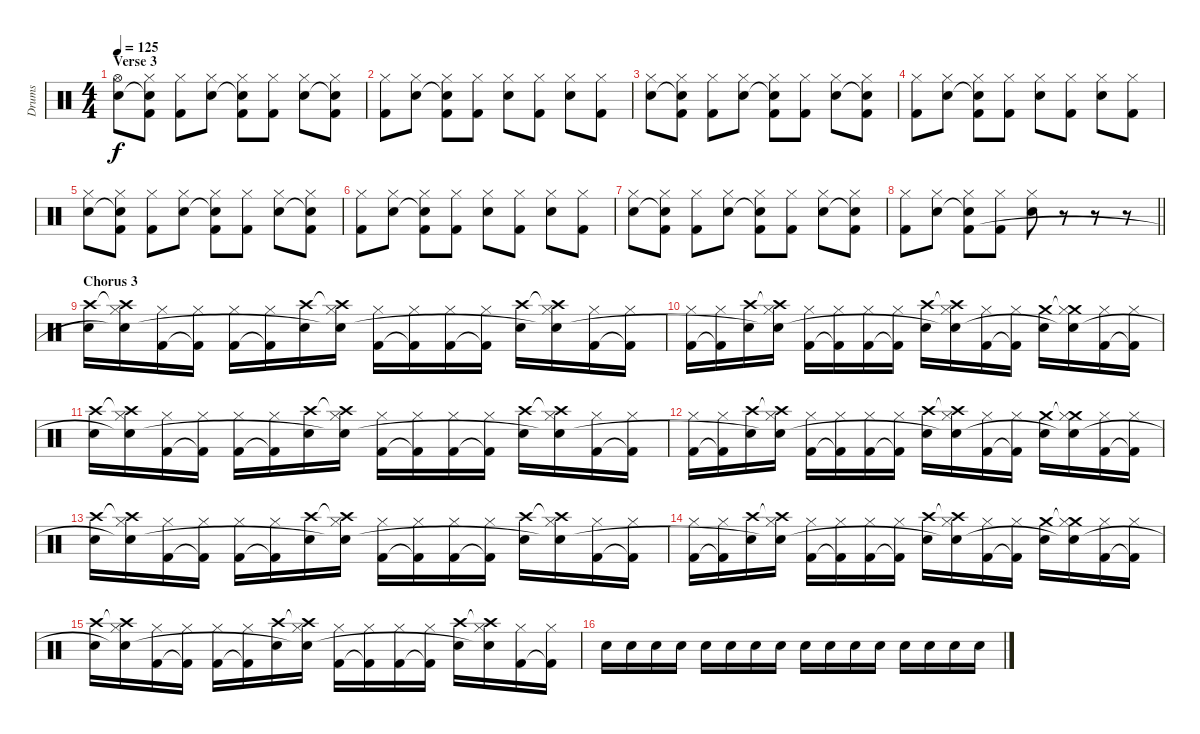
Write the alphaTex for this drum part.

\track ("Drums" "Drums") {instrument percussion}
\staff {score}
\articulation defaults
\ts (4 4)
\section ("" "Verse 3")
\tempo 125
\clef neutral
\ks c
("Hi-Hat (open)" "Snare (hit) 2").8{dy f} ("Hi-Hat (closed)" "Snare (hit) 2"{t} "Kick (hit) 2").8 ("Hi-Hat (closed)" "Kick (hit) 2").8 ("Hi-Hat (closed)" "Snare (hit) 2").8 ("Hi-Hat (closed)" "Snare (hit) 2"{t} "Kick (hit) 2").8 ("Hi-Hat (closed)" "Kick (hit) 2").8 ("Hi-Hat (closed)" "Snare (hit) 2").8 ("Hi-Hat (closed)" "Snare (hit) 2"{t} "Kick (hit) 2").8 |
("Hi-Hat (closed)" "Kick (hit) 2").8 ("Hi-Hat (closed)" "Snare (hit) 2").8 ("Hi-Hat (closed)" "Snare (hit) 2"{t} "Kick (hit) 2").8 ("Hi-Hat (closed)" "Kick (hit) 2").8 ("Hi-Hat (closed)" "Snare (hit) 2").8 ("Hi-Hat (closed)" "Kick (hit) 2").8 ("Hi-Hat (closed)" "Snare (hit) 2").8 ("Hi-Hat (closed)" "Kick (hit) 2").8 |
("Hi-Hat (closed)" "Snare (hit) 2").8 ("Hi-Hat (closed)" "Snare (hit) 2"{t} "Kick (hit) 2").8 ("Hi-Hat (closed)" "Kick (hit) 2").8 ("Hi-Hat (closed)" "Snare (hit) 2").8 ("Hi-Hat (closed)" "Snare (hit) 2"{t} "Kick (hit) 2").8 ("Hi-Hat (closed)" "Kick (hit) 2").8 ("Hi-Hat (closed)" "Snare (hit) 2").8 ("Hi-Hat (closed)" "Snare (hit) 2"{t} "Kick (hit) 2").8 |
("Hi-Hat (closed)" "Kick (hit) 2").8 ("Hi-Hat (closed)" "Snare (hit) 2").8 ("Hi-Hat (closed)" "Snare (hit) 2"{t} "Kick (hit) 2").8 ("Hi-Hat (closed)" "Kick (hit) 2").8 ("Hi-Hat (closed)" "Snare (hit) 2").8 ("Hi-Hat (closed)" "Kick (hit) 2").8 ("Hi-Hat (closed)" "Snare (hit) 2").8 ("Hi-Hat (closed)" "Kick (hit) 2").8 |
("Hi-Hat (closed)" "Snare (hit) 2").8 ("Hi-Hat (closed)" "Snare (hit) 2"{t} "Kick (hit) 2").8 ("Hi-Hat (closed)" "Kick (hit) 2").8 ("Hi-Hat (closed)" "Snare (hit) 2").8 ("Hi-Hat (closed)" "Snare (hit) 2"{t} "Kick (hit) 2").8 ("Hi-Hat (closed)" "Kick (hit) 2").8 ("Hi-Hat (closed)" "Snare (hit) 2").8 ("Hi-Hat (closed)" "Snare (hit) 2"{t} "Kick (hit) 2").8 |
("Hi-Hat (closed)" "Kick (hit) 2").8 ("Hi-Hat (closed)" "Snare (hit) 2").8 ("Hi-Hat (closed)" "Snare (hit) 2"{t} "Kick (hit) 2").8 ("Hi-Hat (closed)" "Kick (hit) 2").8 ("Hi-Hat (closed)" "Snare (hit) 2").8 ("Hi-Hat (closed)" "Kick (hit) 2").8 ("Hi-Hat (closed)" "Snare (hit) 2").8 ("Hi-Hat (closed)" "Kick (hit) 2").8 |
("Hi-Hat (closed)" "Snare (hit) 2").8 ("Hi-Hat (closed)" "Snare (hit) 2"{t} "Kick (hit) 2").8 ("Hi-Hat (closed)" "Kick (hit) 2").8 ("Hi-Hat (closed)" "Snare (hit) 2").8 ("Hi-Hat (closed)" "Snare (hit) 2"{t} "Kick (hit) 2").8 ("Hi-Hat (closed)" "Kick (hit) 2").8 ("Hi-Hat (closed)" "Snare (hit) 2").8 ("Hi-Hat (closed)" "Snare (hit) 2"{t} "Kick (hit) 2").8 |
\barLineRight lightlight
("Hi-Hat (closed)" "Kick (hit) 2").8 ("Hi-Hat (closed)" "Snare (hit) 2").8 ("Hi-Hat (closed)" "Snare (hit) 2"{t} "Kick (hit) 2").8 ("Hi-Hat (closed)" "Kick (hit) 2").8 ("Hi-Hat (closed)" "Snare (hit) 2").8 r.8 r.8 r.8 |
\section ("" "Chorus 3")
("Crash high (hit)" "Snare (hit) 2").16 ("Crash high (hit)"{t} "Hi-Hat (closed)" "Snare (hit) 2"{t}).16 ("Hi-Hat (closed)" "Kick (hit) 2").16 ("Hi-Hat (closed)" "Kick (hit) 2"{t}).16 ("Hi-Hat (closed)" "Kick (hit) 2").16 ("Hi-Hat (closed)" "Kick (hit) 2"{t}).16 ("Crash high (hit)" "Snare (hit) 2").16 ("Crash high (hit)"{t} "Hi-Hat (closed)" "Snare (hit) 2"{t}).16 ("Hi-Hat (closed)" "Kick (hit) 2").16 ("Hi-Hat (closed)" "Kick (hit) 2"{t}).16 ("Hi-Hat (closed)" "Kick (hit) 2").16 ("Hi-Hat (closed)" "Kick (hit) 2"{t}).16 ("Crash high (hit)" "Snare (hit) 2").16 ("Crash high (hit)"{t} "Hi-Hat (closed)" "Snare (hit) 2"{t}).16 ("Hi-Hat (closed)" "Kick (hit) 2").16 ("Hi-Hat (closed)" "Kick (hit) 2"{t}).16 |
("Hi-Hat (closed)" "Kick (hit) 2").16 ("Hi-Hat (closed)" "Kick (hit) 2"{t}).16 ("Crash high (hit)" "Snare (hit) 2").16 ("Crash high (hit)"{t} "Hi-Hat (closed)" "Snare (hit) 2"{t}).16 ("Hi-Hat (closed)" "Kick (hit) 2").16 ("Hi-Hat (closed)" "Kick (hit) 2"{t}).16 ("Hi-Hat (closed)" "Kick (hit) 2").16 ("Hi-Hat (closed)" "Kick (hit) 2"{t}).16 ("Crash high (hit)" "Snare (hit) 2").16 ("Crash high (hit)"{t} "Hi-Hat (closed)" "Snare (hit) 2"{t}).16 ("Hi-Hat (closed)" "Kick (hit) 2").16 ("Hi-Hat (closed)" "Kick (hit) 2"{t}).16 ("Crash medium (hit)" "Snare (hit) 2").16 ("Crash medium (hit)"{t} "Hi-Hat (closed)" "Snare (hit) 2"{t}).16 ("Hi-Hat (closed)" "Kick (hit) 2").16 ("Hi-Hat (closed)" "Kick (hit) 2"{t}).16 |
("Crash high (hit)" "Snare (hit) 2").16 ("Crash high (hit)"{t} "Hi-Hat (closed)" "Snare (hit) 2"{t}).16 ("Hi-Hat (closed)" "Kick (hit) 2").16 ("Hi-Hat (closed)" "Kick (hit) 2"{t}).16 ("Hi-Hat (closed)" "Kick (hit) 2").16 ("Hi-Hat (closed)" "Kick (hit) 2"{t}).16 ("Crash high (hit)" "Snare (hit) 2").16 ("Crash high (hit)"{t} "Hi-Hat (closed)" "Snare (hit) 2"{t}).16 ("Hi-Hat (closed)" "Kick (hit) 2").16 ("Hi-Hat (closed)" "Kick (hit) 2"{t}).16 ("Hi-Hat (closed)" "Kick (hit) 2").16 ("Hi-Hat (closed)" "Kick (hit) 2"{t}).16 ("Crash high (hit)" "Snare (hit) 2").16 ("Crash high (hit)"{t} "Hi-Hat (closed)" "Snare (hit) 2"{t}).16 ("Hi-Hat (closed)" "Kick (hit) 2").16 ("Hi-Hat (closed)" "Kick (hit) 2"{t}).16 |
("Hi-Hat (closed)" "Kick (hit) 2").16 ("Hi-Hat (closed)" "Kick (hit) 2"{t}).16 ("Crash high (hit)" "Snare (hit) 2").16 ("Crash high (hit)"{t} "Hi-Hat (closed)" "Snare (hit) 2"{t}).16 ("Hi-Hat (closed)" "Kick (hit) 2").16 ("Hi-Hat (closed)" "Kick (hit) 2"{t}).16 ("Hi-Hat (closed)" "Kick (hit) 2").16 ("Hi-Hat (closed)" "Kick (hit) 2"{t}).16 ("Crash high (hit)" "Snare (hit) 2").16 ("Crash high (hit)"{t} "Hi-Hat (closed)" "Snare (hit) 2"{t}).16 ("Hi-Hat (closed)" "Kick (hit) 2").16 ("Hi-Hat (closed)" "Kick (hit) 2"{t}).16 ("Crash medium (hit)" "Snare (hit) 2").16 ("Crash medium (hit)"{t} "Hi-Hat (closed)" "Snare (hit) 2"{t}).16 ("Hi-Hat (closed)" "Kick (hit) 2").16 ("Hi-Hat (closed)" "Kick (hit) 2"{t}).16 |
("Crash high (hit)" "Snare (hit) 2").16 ("Crash high (hit)"{t} "Hi-Hat (closed)" "Snare (hit) 2"{t}).16 ("Hi-Hat (closed)" "Kick (hit) 2").16 ("Hi-Hat (closed)" "Kick (hit) 2"{t}).16 ("Hi-Hat (closed)" "Kick (hit) 2").16 ("Hi-Hat (closed)" "Kick (hit) 2"{t}).16 ("Crash high (hit)" "Snare (hit) 2").16 ("Crash high (hit)"{t} "Hi-Hat (closed)" "Snare (hit) 2"{t}).16 ("Hi-Hat (closed)" "Kick (hit) 2").16 ("Hi-Hat (closed)" "Kick (hit) 2"{t}).16 ("Hi-Hat (closed)" "Kick (hit) 2").16 ("Hi-Hat (closed)" "Kick (hit) 2"{t}).16 ("Crash high (hit)" "Snare (hit) 2").16 ("Crash high (hit)"{t} "Hi-Hat (closed)" "Snare (hit) 2"{t}).16 ("Hi-Hat (closed)" "Kick (hit) 2").16 ("Hi-Hat (closed)" "Kick (hit) 2"{t}).16 |
("Hi-Hat (closed)" "Kick (hit) 2").16 ("Hi-Hat (closed)" "Kick (hit) 2"{t}).16 ("Crash high (hit)" "Snare (hit) 2").16 ("Crash high (hit)"{t} "Hi-Hat (closed)" "Snare (hit) 2"{t}).16 ("Hi-Hat (closed)" "Kick (hit) 2").16 ("Hi-Hat (closed)" "Kick (hit) 2"{t}).16 ("Hi-Hat (closed)" "Kick (hit) 2").16 ("Hi-Hat (closed)" "Kick (hit) 2"{t}).16 ("Crash high (hit)" "Snare (hit) 2").16 ("Crash high (hit)"{t} "Hi-Hat (closed)" "Snare (hit) 2"{t}).16 ("Hi-Hat (closed)" "Kick (hit) 2").16 ("Hi-Hat (closed)" "Kick (hit) 2"{t}).16 ("Crash medium (hit)" "Snare (hit) 2").16 ("Crash medium (hit)"{t} "Hi-Hat (closed)" "Snare (hit) 2"{t}).16 ("Hi-Hat (closed)" "Kick (hit) 2").16 ("Hi-Hat (closed)" "Kick (hit) 2"{t}).16 |
("Crash high (hit)" "Snare (hit) 2").16 ("Crash high (hit)"{t} "Hi-Hat (closed)" "Snare (hit) 2"{t}).16 ("Hi-Hat (closed)" "Kick (hit) 2").16 ("Hi-Hat (closed)" "Kick (hit) 2"{t}).16 ("Hi-Hat (closed)" "Kick (hit) 2").16 ("Hi-Hat (closed)" "Kick (hit) 2"{t}).16 ("Crash high (hit)" "Snare (hit) 2").16 ("Crash high (hit)"{t} "Hi-Hat (closed)" "Snare (hit) 2"{t}).16 ("Hi-Hat (closed)" "Kick (hit) 2").16 ("Hi-Hat (closed)" "Kick (hit) 2"{t}).16 ("Hi-Hat (closed)" "Kick (hit) 2").16 ("Hi-Hat (closed)" "Kick (hit) 2"{t}).16 ("Crash high (hit)" "Snare (hit) 2").16 ("Crash high (hit)"{t} "Hi-Hat (closed)" "Snare (hit) 2"{t}).16 ("Hi-Hat (closed)" "Kick (hit) 2").16 ("Hi-Hat (closed)" "Kick (hit) 2"{t}).16 |
"Snare (hit) 2".16 "Snare (hit) 2".16 "Snare (hit) 2".16 "Snare (hit) 2".16 "Snare (hit) 2".16 "Snare (hit) 2".16 "Snare (hit) 2".16 "Snare (hit) 2".16 "Snare (hit) 2".16 "Snare (hit) 2".16 "Snare (hit) 2".16 "Snare (hit) 2".16 "Snare (hit) 2".16 "Snare (hit) 2".16 "Snare (hit) 2".16 "Snare (hit) 2".16
